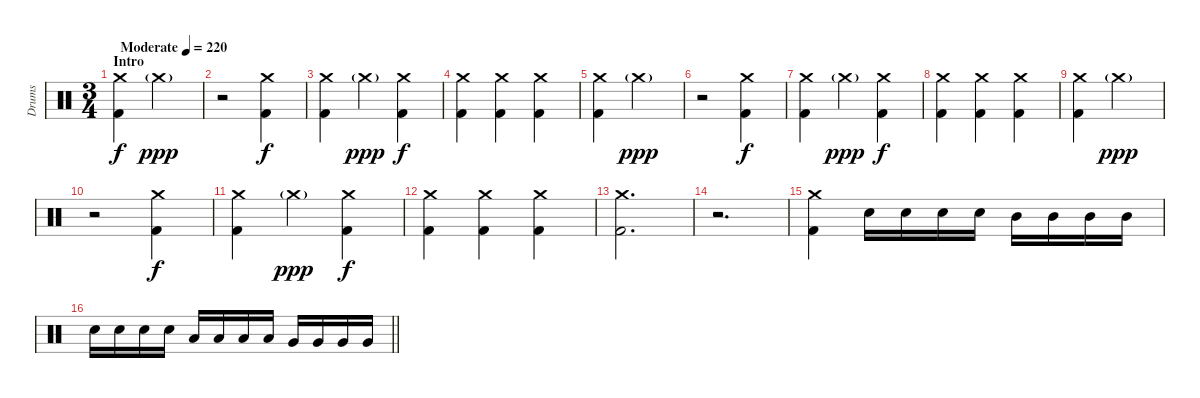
\track ("Drums" "Drums") {instrument percussion}
\staff {score}
\articulation defaults
\ts (3 4)
\section ("" "Intro")
\tempo (220 "Moderate")
\clef neutral
\ks c
("Crash medium (hit)" "Kick (hit) 2").4{dy f} "Crash medium (hit)"{g}.2{dy ppp} |
r.2 ("Crash medium (hit)" "Kick (hit) 2").4{dy f} |
("Crash medium (hit)" "Kick (hit) 2").4 "Crash medium (hit)"{g}.4{dy ppp} ("Crash medium (hit)" "Kick (hit) 2").4{dy f} |
("Crash medium (hit)" "Kick (hit) 2").4 ("Crash medium (hit)" "Kick (hit) 2").4 ("Crash medium (hit)" "Kick (hit) 2").4 |
("Crash medium (hit)" "Kick (hit) 2").4 "Crash medium (hit)"{g}.2{dy ppp} |
r.2 ("Crash medium (hit)" "Kick (hit) 2").4{dy f} |
("Crash medium (hit)" "Kick (hit) 2").4 "Crash medium (hit)"{g}.4{dy ppp} ("Crash medium (hit)" "Kick (hit) 2").4{dy f} |
("Crash medium (hit)" "Kick (hit) 2").4 ("Crash medium (hit)" "Kick (hit) 2").4 ("Crash medium (hit)" "Kick (hit) 2").4 |
("Crash medium (hit)" "Kick (hit) 2").4 "Crash medium (hit)"{g}.2{dy ppp} |
r.2 ("Crash medium (hit)" "Kick (hit) 2").4{dy f} |
("Crash medium (hit)" "Kick (hit) 2").4 "Crash medium (hit)"{g}.4{dy ppp} ("Crash medium (hit)" "Kick (hit) 2").4{dy f} |
("Crash medium (hit)" "Kick (hit) 2").4 ("Crash medium (hit)" "Kick (hit) 2").4 ("Crash medium (hit)" "Kick (hit) 2").4 |
("Crash medium (hit)" "Kick (hit) 2").2{d} |
r.2{d} |
("Crash medium (hit)" "Kick (hit) 2").4 "Electric Snare (hit)".16 "Electric Snare (hit)".16 "Electric Snare (hit)".16 "Electric Snare (hit)".16 "Mid Tom (hit)".16 "Mid Tom (hit)".16 "Mid Tom (hit)".16 "Mid Tom (hit)".16 |
\barLineRight lightlight "Electric Snare (hit)".16 "Electric Snare (hit)".16 "Electric Snare (hit)".16 "Electric Snare (hit)".16 "Low Tom (hit)".16 "Low Tom (hit)".16 "Low Tom (hit)".16 "Low Tom (hit)".16 "Very Low Tom (hit)".16 "Very Low Tom (hit)".16 "Very Low Tom (hit)".16 "Very Low Tom (hit)".16
